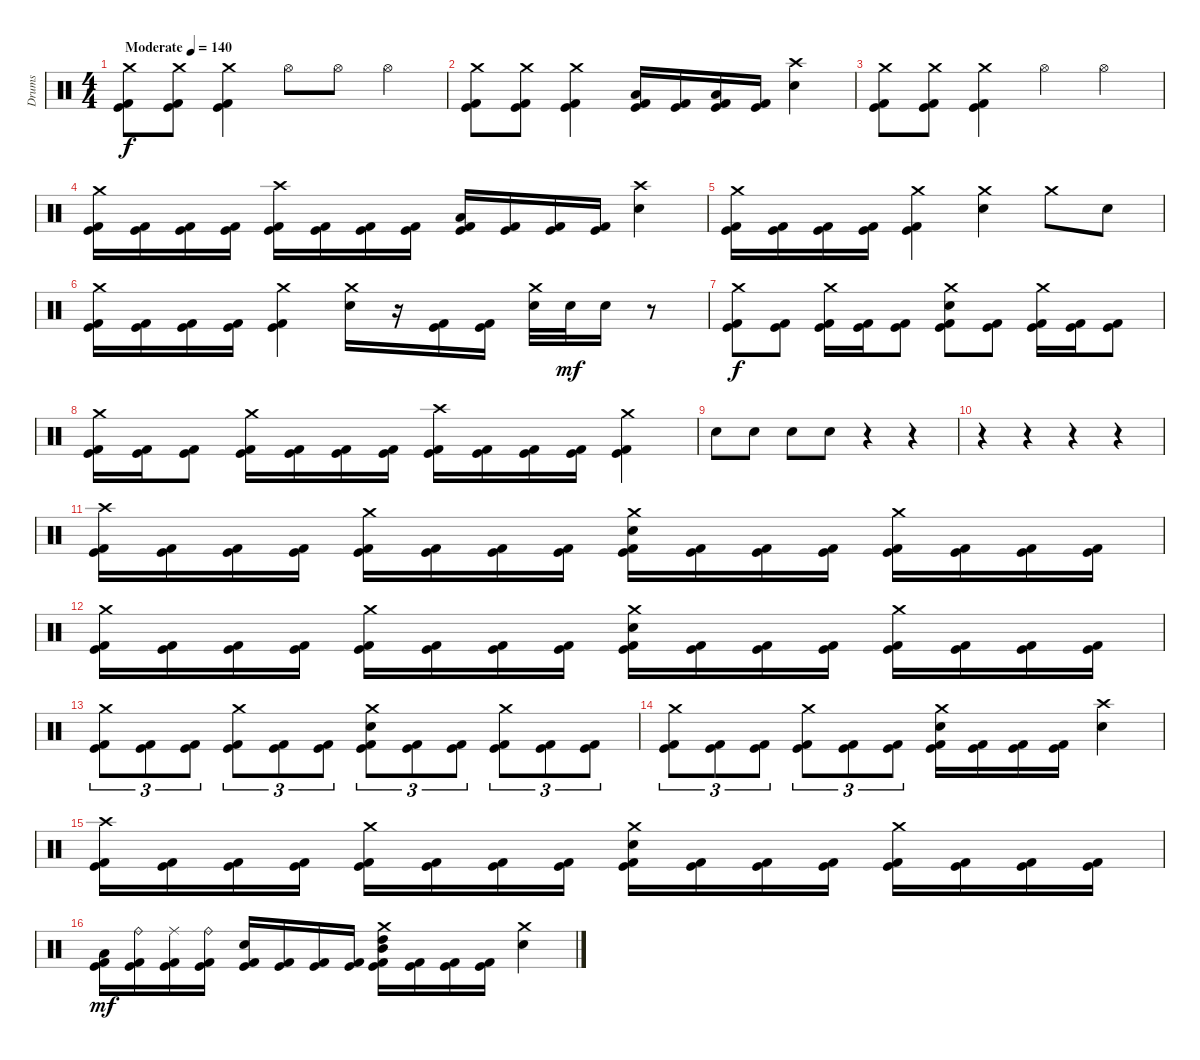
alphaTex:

\track ("Drums" "Drums") {instrument percussion}
\staff {score}
\articulation defaults
\ts (4 4)
\tempo (140 "Moderate")
\clef neutral
\ks c
("Crash medium (hit)" "Kick (hit) 2" "Kick (hit)").8{dy f} ("Crash medium (hit)" "Kick (hit) 2" "Kick (hit)").8 ("Crash medium (hit)" "Kick (hit) 2" "Kick (hit)").4 "Hi-Hat (open)".8 "Hi-Hat (open)".8 "Hi-Hat (open)".4 |
("Crash medium (hit)" "Kick (hit) 2" "Kick (hit)").8 ("Crash medium (hit)" "Kick (hit) 2" "Kick (hit)").8 ("Crash medium (hit)" "Kick (hit) 2" "Kick (hit)").4 ("Low Tom (hit)" "Kick (hit) 2" "Kick (hit)").16 ("Kick (hit) 2" "Kick (hit)").16 ("Low Tom (hit)" "Kick (hit) 2" "Kick (hit)").16 ("Kick (hit) 2" "Kick (hit)").16 ("Crash high (hit)" "Electric Snare (hit)").4 |
("Crash medium (hit)" "Kick (hit) 2" "Kick (hit)").8 ("Crash medium (hit)" "Kick (hit) 2" "Kick (hit)").8 ("Crash medium (hit)" "Kick (hit) 2" "Kick (hit)").4 "Hi-Hat (open)".4 "Hi-Hat (open)".4 |
("Crash medium (hit)" "Kick (hit) 2" "Kick (hit)").16 ("Kick (hit) 2" "Kick (hit)").16 ("Kick (hit) 2" "Kick (hit)").16 ("Kick (hit) 2" "Kick (hit)").16 ("Crash high (hit)" "Kick (hit) 2" "Kick (hit)").16 ("Kick (hit) 2" "Kick (hit)").16 ("Kick (hit) 2" "Kick (hit)").16 ("Kick (hit) 2" "Kick (hit)").16 ("Low Tom (hit)" "Kick (hit) 2" "Kick (hit)").16 ("Kick (hit) 2" "Kick (hit)").16 ("Kick (hit) 2" "Kick (hit)").16 ("Kick (hit) 2" "Kick (hit)").16 ("Crash high (hit)" "Electric Snare (hit)").4 |
("Crash medium (hit)" "Kick (hit)" "Kick (hit) 2").16 ("Kick (hit)" "Kick (hit) 2").16 ("Kick (hit)" "Kick (hit) 2").16 ("Kick (hit)" "Kick (hit) 2").16 ("Crash medium (hit)" "Kick (hit)" "Kick (hit) 2").4 ("Crash medium (hit)" "Electric Snare (hit)").4 "Crash medium (hit)".8 "Electric Snare (hit)".8 |
("Crash medium (hit)" "Kick (hit)" "Kick (hit) 2").16 ("Kick (hit)" "Kick (hit) 2").16 ("Kick (hit)" "Kick (hit) 2").16 ("Kick (hit)" "Kick (hit) 2").16 ("Crash medium (hit)" "Kick (hit)" "Kick (hit) 2").4 ("Crash medium (hit)" "Electric Snare (hit)").16 r.16 ("Kick (hit)" "Kick (hit) 2").16 ("Kick (hit)" "Kick (hit) 2").16 ("Crash medium (hit)" "Electric Snare (hit)").32 "Electric Snare (hit)".32{dy mf} "Electric Snare (hit)".16 r.8 |
("Crash medium (hit)" "Kick (hit)" "Kick (hit) 2").8{dy f} ("Kick (hit)" "Kick (hit) 2").8 ("Crash medium (hit)" "Kick (hit)" "Kick (hit) 2").16 ("Kick (hit)" "Kick (hit) 2").16 ("Kick (hit)" "Kick (hit) 2").8 ("Crash medium (hit)" "Electric Snare (hit)" "Kick (hit)" "Kick (hit) 2").8 ("Kick (hit)" "Kick (hit) 2").8 ("Crash medium (hit)" "Kick (hit)" "Kick (hit) 2").16 ("Kick (hit)" "Kick (hit) 2").16 ("Kick (hit)" "Kick (hit) 2").8 |
("Crash medium (hit)" "Kick (hit)" "Kick (hit) 2").16 ("Kick (hit)" "Kick (hit) 2").16 ("Kick (hit)" "Kick (hit) 2").8 ("Crash medium (hit)" "Kick (hit)" "Kick (hit) 2").16 ("Kick (hit)" "Kick (hit) 2").16 ("Kick (hit)" "Kick (hit) 2").16 ("Kick (hit)" "Kick (hit) 2").16 ("Crash high (hit)" "Kick (hit)" "Kick (hit) 2").16 ("Kick (hit)" "Kick (hit) 2").16 ("Kick (hit)" "Kick (hit) 2").16 ("Kick (hit)" "Kick (hit) 2").16 ("Crash medium (hit)" "Kick (hit)" "Kick (hit) 2").4 |
"Electric Snare (hit)".8 "Electric Snare (hit)".8 "Electric Snare (hit)".8 "Electric Snare (hit)".8 r.4 r.4 |
r.4 r.4 r.4 r.4 |
("Crash high (hit)" "Kick (hit) 2" "Kick (hit)").16 ("Kick (hit) 2" "Kick (hit)").16 ("Kick (hit) 2" "Kick (hit)").16 ("Kick (hit) 2" "Kick (hit)").16 ("Crash medium (hit)" "Kick (hit) 2" "Kick (hit)").16 ("Kick (hit) 2" "Kick (hit)").16 ("Kick (hit) 2" "Kick (hit)").16 ("Kick (hit) 2" "Kick (hit)").16 ("Crash medium (hit)" "Electric Snare (hit)" "Kick (hit) 2" "Kick (hit)").16 ("Kick (hit) 2" "Kick (hit)").16 ("Kick (hit) 2" "Kick (hit)").16 ("Kick (hit) 2" "Kick (hit)").16 ("Crash medium (hit)" "Kick (hit) 2" "Kick (hit)").16 ("Kick (hit) 2" "Kick (hit)").16 ("Kick (hit) 2" "Kick (hit)").16 ("Kick (hit) 2" "Kick (hit)").16 |
("Crash medium (hit)" "Kick (hit) 2" "Kick (hit)").16 ("Kick (hit) 2" "Kick (hit)").16 ("Kick (hit) 2" "Kick (hit)").16 ("Kick (hit) 2" "Kick (hit)").16 ("Crash medium (hit)" "Kick (hit) 2" "Kick (hit)").16 ("Kick (hit) 2" "Kick (hit)").16 ("Kick (hit) 2" "Kick (hit)").16 ("Kick (hit) 2" "Kick (hit)").16 ("Crash medium (hit)" "Electric Snare (hit)" "Kick (hit) 2" "Kick (hit)").16 ("Kick (hit) 2" "Kick (hit)").16 ("Kick (hit) 2" "Kick (hit)").16 ("Kick (hit) 2" "Kick (hit)").16 ("Crash medium (hit)" "Kick (hit) 2" "Kick (hit)").16 ("Kick (hit) 2" "Kick (hit)").16 ("Kick (hit) 2" "Kick (hit)").16 ("Kick (hit) 2" "Kick (hit)").16 |
("Crash medium (hit)" "Kick (hit) 2" "Kick (hit)").8{tu (3 2)} ("Kick (hit) 2" "Kick (hit)").8{tu (3 2)} ("Kick (hit) 2" "Kick (hit)").8{tu (3 2)} ("Crash medium (hit)" "Kick (hit) 2" "Kick (hit)").8{tu (3 2)} ("Kick (hit) 2" "Kick (hit)").8{tu (3 2)} ("Kick (hit) 2" "Kick (hit)").8{tu (3 2)} ("Crash medium (hit)" "Electric Snare (hit)" "Kick (hit) 2" "Kick (hit)").8{tu (3 2)} ("Kick (hit) 2" "Kick (hit)").8{tu (3 2)} ("Kick (hit) 2" "Kick (hit)").8{tu (3 2)} ("Crash medium (hit)" "Kick (hit) 2" "Kick (hit)").8{tu (3 2)} ("Kick (hit) 2" "Kick (hit)").8{tu (3 2)} ("Kick (hit) 2" "Kick (hit)").8{tu (3 2)} |
("Crash medium (hit)" "Kick (hit) 2" "Kick (hit)").8{tu (3 2)} ("Kick (hit) 2" "Kick (hit)").8{tu (3 2)} ("Kick (hit) 2" "Kick (hit)").8{tu (3 2)} ("Crash medium (hit)" "Kick (hit) 2" "Kick (hit)").8{tu (3 2)} ("Kick (hit) 2" "Kick (hit)").8{tu (3 2)} ("Kick (hit) 2" "Kick (hit)").8{tu (3 2)} ("Crash medium (hit)" "Electric Snare (hit)" "Kick (hit) 2" "Kick (hit)").16 ("Kick (hit) 2" "Kick (hit)").16 ("Kick (hit) 2" "Kick (hit)").16 ("Kick (hit) 2" "Kick (hit)").16 ("Crash high (hit)" "Electric Snare (hit)").4 |
("Crash high (hit)" "Kick (hit) 2" "Kick (hit)").16 ("Kick (hit) 2" "Kick (hit)").16 ("Kick (hit) 2" "Kick (hit)").16 ("Kick (hit) 2" "Kick (hit)").16 ("Crash medium (hit)" "Kick (hit) 2" "Kick (hit)").16 ("Kick (hit) 2" "Kick (hit)").16 ("Kick (hit) 2" "Kick (hit)").16 ("Kick (hit) 2" "Kick (hit)").16 ("Crash medium (hit)" "Electric Snare (hit)" "Kick (hit) 2" "Kick (hit)").16 ("Kick (hit) 2" "Kick (hit)").16 ("Kick (hit) 2" "Kick (hit)").16 ("Kick (hit) 2" "Kick (hit)").16 ("Crash medium (hit)" "Kick (hit) 2" "Kick (hit)").16 ("Kick (hit) 2" "Kick (hit)").16 ("Kick (hit) 2" "Kick (hit)").16 ("Kick (hit) 2" "Kick (hit)").16 |
("Low Tom (hit)" "Kick (hit)" "Kick (hit) 2").16{dy mf} ("Ride (bell)" "Kick (hit)" "Kick (hit) 2").16 ("Ride (middle)" "Kick (hit)" "Kick (hit) 2").16 ("Ride (bell)" "Kick (hit)" "Kick (hit) 2").16 ("Electric Snare (hit)" "Kick (hit)" "Kick (hit) 2").16 ("Kick (hit)" "Kick (hit) 2").16 ("Kick (hit)" "Kick (hit) 2").16 ("Kick (hit)" "Kick (hit) 2").16 ("Crash medium (hit)" "High Tom (hit)" "Mid Tom (hit)" "Kick (hit)" "Kick (hit) 2").16 ("Kick (hit)" "Kick (hit) 2").16 ("Kick (hit)" "Kick (hit) 2").16 ("Kick (hit)" "Kick (hit) 2").16 ("Crash medium (hit)" "Electric Snare (hit)").4
